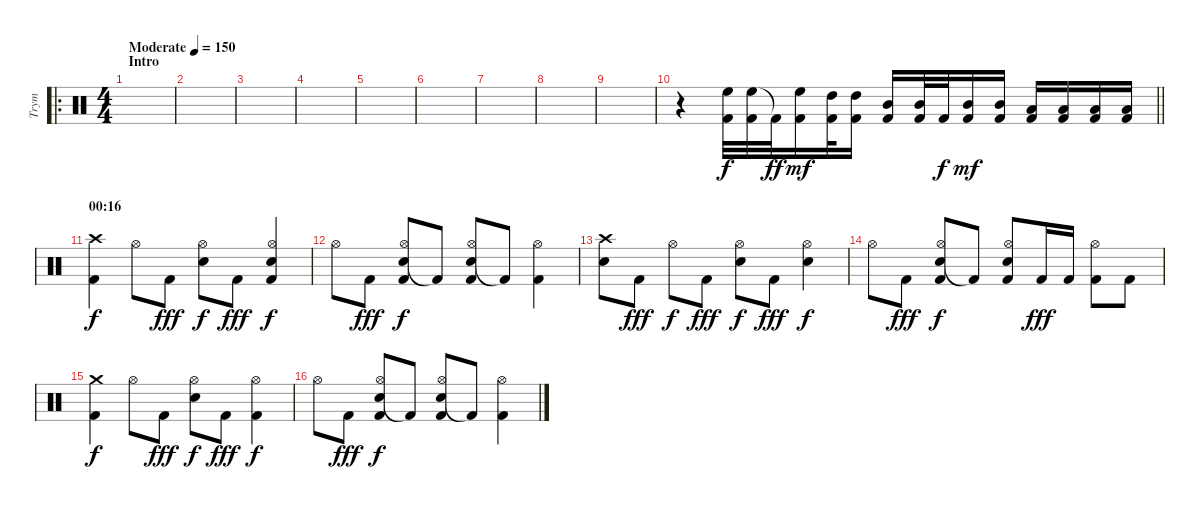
\track ("Trym" "Trym") {instrument percussion}
\staff {score}
\articulation defaults
\ro
\ts (4 4)
\section ("" "Intro")
\tempo (150 "Moderate")
\clef neutral
\ks c
|
|
|
|
|
|
|
|
|
\barLineRight lightlight
r.4 ("High Floor Tom (hit)" "Kick (hit) 2").32 ("High Floor Tom (hit)" "Kick (hit) 2").32 "Kick (hit) 2"{t}.32{dy ff} ("High Floor Tom (hit)" "Kick (hit) 2").16{dy mf} ("High Tom (hit)" "Kick (hit) 2").32 ("High Tom (hit)" "Kick (hit) 2").16 ("Mid Tom (hit)" "Kick (hit) 2").16 ("Mid Tom (hit)" "Kick (hit) 2").32 "Kick (hit) 2".32{dy f} ("Mid Tom (hit)" "Kick (hit) 2").16{dy mf} ("Mid Tom (hit)" "Kick (hit) 2").16 ("Low Tom (hit)" "Kick (hit) 2").16 ("Low Tom (hit)" "Kick (hit) 2").16 ("Low Tom (hit)" "Kick (hit) 2").16 ("Low Tom (hit)" "Kick (hit) 2").16 |
\section ("" "00:16")
("Crash high (hit)" "Kick (hit) 2").4{dy f} "Hi-Hat (open)".8 "Kick (hit) 2".8{dy fff} ("Snare (hit) 2" "Hi-Hat (open)").8{dy f} "Kick (hit) 2".8{dy fff} ("Snare (hit) 2" "Hi-Hat (open)" "Kick (hit) 2").4{dy f} |
"Hi-Hat (open)".8 "Kick (hit) 2".8{dy fff} ("Snare (hit) 2" "Hi-Hat (open)" "Kick (hit) 2").8{dy f} "Kick (hit) 2"{t}.8 ("Snare (hit) 2" "Hi-Hat (open)" "Kick (hit) 2").8 "Kick (hit) 2"{t}.8 ("Hi-Hat (open)" "Kick (hit) 2").4 |
("Crash high (hit)" "Snare (hit) 2").8 "Kick (hit) 2".8{dy fff} "Hi-Hat (open)".8{dy f} "Kick (hit) 2".8{dy fff} ("Snare (hit) 2" "Hi-Hat (open)").8{dy f} "Kick (hit) 2".8{dy fff} ("Snare (hit) 2" "Hi-Hat (open)").4{dy f} |
"Hi-Hat (open)".8 "Kick (hit) 2".8{dy fff} ("Snare (hit) 2" "Hi-Hat (open)" "Kick (hit) 2").8{dy f} "Kick (hit) 2"{t}.8 ("Snare (hit) 2" "Hi-Hat (open)" "Kick (hit) 2").8 "Kick (hit) 2".16{dy fff} "Kick (hit) 2".16 ("Hi-Hat (open)" "Kick (hit) 2").8 "Kick (hit) 2".8 |
("Crash medium (hit)" "Kick (hit) 2").4{dy f} "Hi-Hat (open)".8 "Kick (hit) 2".8{dy fff} ("Snare (hit) 2" "Hi-Hat (open)").8{dy f} "Kick (hit) 2".8{dy fff} ("Hi-Hat (open)" "Kick (hit) 2").4{dy f} |
"Hi-Hat (open)".8 "Kick (hit) 2".8{dy fff} ("Snare (hit) 2" "Hi-Hat (open)" "Kick (hit) 2").8{dy f} "Kick (hit) 2"{t}.8 ("Snare (hit) 2" "Hi-Hat (open)" "Kick (hit) 2").8 "Kick (hit) 2"{t}.8 ("Hi-Hat (open)" "Kick (hit) 2").4
